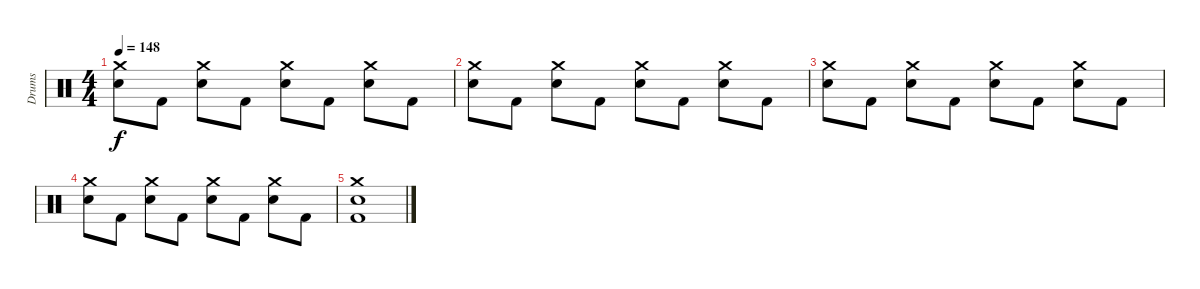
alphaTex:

\track ("Drums" "Drums") {instrument percussion}
\staff {score}
\articulation defaults
\ts (4 4)
\tempo 148
\clef neutral
\ks c
("Crash medium (hit)" "Snare (hit) 2").8{dy f} "Kick (hit) 2".8 ("Crash medium (hit)" "Snare (hit) 2").8 "Kick (hit) 2".8 ("Crash medium (hit)" "Snare (hit) 2").8 "Kick (hit) 2".8 ("Crash medium (hit)" "Snare (hit) 2").8 "Kick (hit) 2".8 |
("Crash medium (hit)" "Snare (hit) 2").8 "Kick (hit) 2".8 ("Crash medium (hit)" "Snare (hit) 2").8 "Kick (hit) 2".8 ("Crash medium (hit)" "Snare (hit) 2").8 "Kick (hit) 2".8 ("Crash medium (hit)" "Snare (hit) 2").8 "Kick (hit) 2".8 |
("Crash medium (hit)" "Snare (hit) 2").8 "Kick (hit) 2".8 ("Crash medium (hit)" "Snare (hit) 2").8 "Kick (hit) 2".8 ("Crash medium (hit)" "Snare (hit) 2").8 "Kick (hit) 2".8 ("Crash medium (hit)" "Snare (hit) 2").8 "Kick (hit) 2".8 |
("Crash medium (hit)" "Snare (hit) 2").8 "Kick (hit) 2".8 ("Crash medium (hit)" "Snare (hit) 2").8 "Kick (hit) 2".8 ("Crash medium (hit)" "Snare (hit) 2").8 "Kick (hit) 2".8 ("Crash medium (hit)" "Snare (hit) 2").8 "Kick (hit) 2".8 |
("Crash medium (hit)" "Snare (hit) 2" "Kick (hit) 2").1
